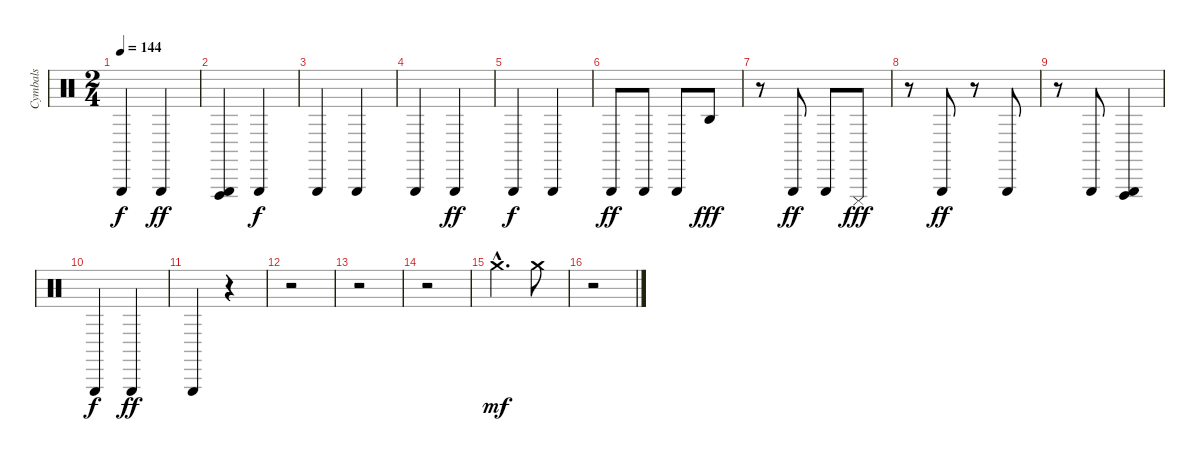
\track ("Cymbals             " "Cymbals   ") {instrument percussion}
\staff {score}
\articulation defaults
\ts (2 4)
\tempo 144
\clef neutral
\ks c "Triangle (hit)".4{dy f} "Triangle (hit)".4{dy ff}
|
("Vibraslap (hit)" "Triangle (hit)").4 "Triangle (hit)".4{dy f} |
"Triangle (hit)".4 "Triangle (hit)".4 |
"Triangle (hit)".4 "Triangle (hit)".4{dy ff} |
"Triangle (hit)".4{dy f} "Triangle (hit)".4 |
"Triangle (hit)".8{dy ff} "Triangle (hit)".8 "Triangle (hit)".8 "Agogo high (hit)".8{dy fff} |
r.8 "Triangle (hit)".8{dy ff} "Triangle (hit)".8 "Cuica (mute)".8{dy fff} |
r.8 "Triangle (hit)".8{dy ff} r.8 "Triangle (hit)".8 |
r.8 "Triangle (hit)".8 ("Vibraslap (hit)" "Triangle (hit)").4 |
"Triangle (hit)".4{dy f} "Triangle (hit)".4{dy ff} |
"Triangle (hit)".4 r.4 |
r.2 |
r.2 |
r.2 |
"Crash medium (hit)"{hac}.4{d dy mf} "Crash medium (hit)".8 |
r.2
